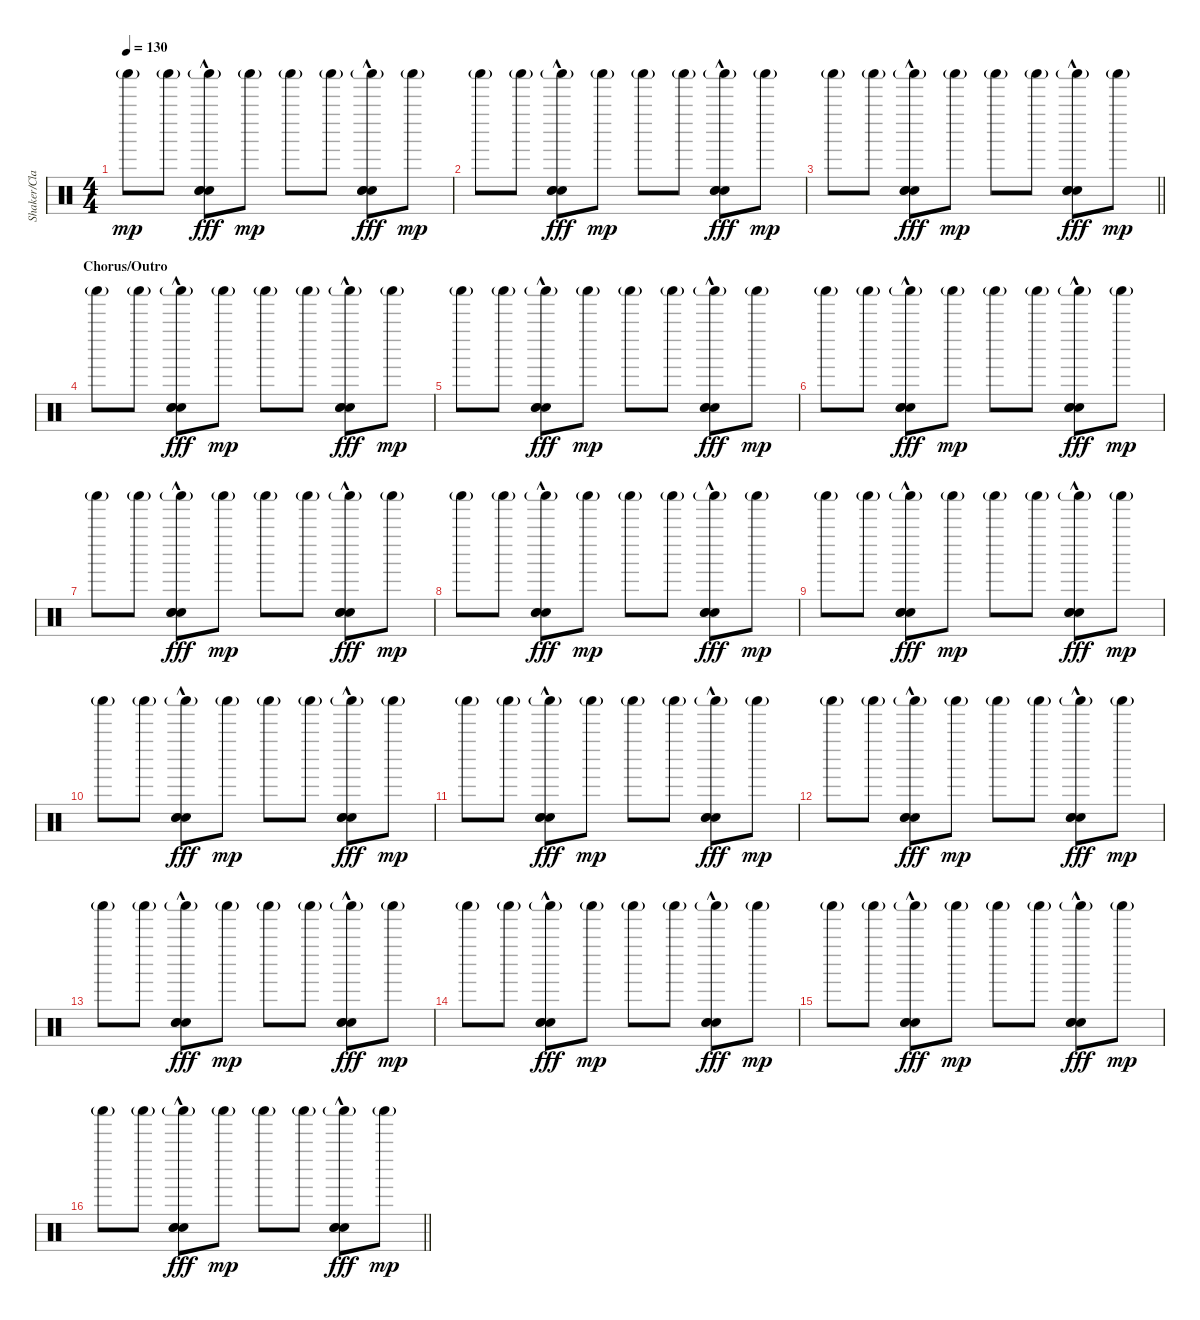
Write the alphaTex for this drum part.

\track ("Shaker/Claps" "Shaker/Cla") {instrument percussion}
\staff {score}
\articulation defaults
\ts (4 4)
\tempo 130
\clef neutral
\ks c "Shaker (hit)"{g}.8{dy mp} "Shaker (hit)"{g}.8
("Shaker (hit)"{g} "Hand Clap (hit)"{hac} "Hand Clap (hit)"{hac} "Hand Clap (hit)"{hac}).8{dy fff} "Shaker (hit)"{g}.8{dy mp} "Shaker (hit)"{g}.8 "Shaker (hit)"{g}.8 ("Shaker (hit)"{g} "Hand Clap (hit)"{hac} "Hand Clap (hit)"{hac} "Hand Clap (hit)"{hac}).8{dy fff} "Shaker (hit)"{g}.8{dy mp} |
"Shaker (hit)"{g}.8 "Shaker (hit)"{g}.8 ("Shaker (hit)"{g} "Hand Clap (hit)"{hac} "Hand Clap (hit)"{hac} "Hand Clap (hit)"{hac}).8{dy fff} "Shaker (hit)"{g}.8{dy mp} "Shaker (hit)"{g}.8 "Shaker (hit)"{g}.8 ("Shaker (hit)"{g} "Hand Clap (hit)"{hac} "Hand Clap (hit)"{hac} "Hand Clap (hit)"{hac}).8{dy fff} "Shaker (hit)"{g}.8{dy mp} |
\barLineRight lightlight "Shaker (hit)"{g}.8 "Shaker (hit)"{g}.8
("Shaker (hit)"{g} "Hand Clap (hit)"{hac} "Hand Clap (hit)"{hac} "Hand Clap (hit)"{hac}).8{dy fff} "Shaker (hit)"{g}.8{dy mp} "Shaker (hit)"{g}.8 "Shaker (hit)"{g}.8 ("Shaker (hit)"{g} "Hand Clap (hit)"{hac} "Hand Clap (hit)"{hac} "Hand Clap (hit)"{hac}).8{dy fff} "Shaker (hit)"{g}.8{dy mp} |
\section ("" "Chorus/Outro")
"Shaker (hit)"{g}.8 "Shaker (hit)"{g}.8 ("Shaker (hit)"{g} "Hand Clap (hit)"{hac} "Hand Clap (hit)"{hac} "Hand Clap (hit)"{hac}).8{dy fff} "Shaker (hit)"{g}.8{dy mp} "Shaker (hit)"{g}.8 "Shaker (hit)"{g}.8 ("Shaker (hit)"{g} "Hand Clap (hit)"{hac} "Hand Clap (hit)"{hac} "Hand Clap (hit)"{hac}).8{dy fff} "Shaker (hit)"{g}.8{dy mp} |
"Shaker (hit)"{g}.8 "Shaker (hit)"{g}.8 ("Shaker (hit)"{g} "Hand Clap (hit)"{hac} "Hand Clap (hit)"{hac} "Hand Clap (hit)"{hac}).8{dy fff} "Shaker (hit)"{g}.8{dy mp} "Shaker (hit)"{g}.8 "Shaker (hit)"{g}.8 ("Shaker (hit)"{g} "Hand Clap (hit)"{hac} "Hand Clap (hit)"{hac} "Hand Clap (hit)"{hac}).8{dy fff} "Shaker (hit)"{g}.8{dy mp} |
"Shaker (hit)"{g}.8 "Shaker (hit)"{g}.8 ("Shaker (hit)"{g} "Hand Clap (hit)"{hac} "Hand Clap (hit)"{hac} "Hand Clap (hit)"{hac}).8{dy fff} "Shaker (hit)"{g}.8{dy mp} "Shaker (hit)"{g}.8 "Shaker (hit)"{g}.8 ("Shaker (hit)"{g} "Hand Clap (hit)"{hac} "Hand Clap (hit)"{hac} "Hand Clap (hit)"{hac}).8{dy fff} "Shaker (hit)"{g}.8{dy mp} |
"Shaker (hit)"{g}.8 "Shaker (hit)"{g}.8 ("Shaker (hit)"{g} "Hand Clap (hit)"{hac} "Hand Clap (hit)"{hac} "Hand Clap (hit)"{hac}).8{dy fff} "Shaker (hit)"{g}.8{dy mp} "Shaker (hit)"{g}.8 "Shaker (hit)"{g}.8 ("Shaker (hit)"{g} "Hand Clap (hit)"{hac} "Hand Clap (hit)"{hac} "Hand Clap (hit)"{hac}).8{dy fff} "Shaker (hit)"{g}.8{dy mp} |
"Shaker (hit)"{g}.8 "Shaker (hit)"{g}.8 ("Shaker (hit)"{g} "Hand Clap (hit)"{hac} "Hand Clap (hit)"{hac} "Hand Clap (hit)"{hac}).8{dy fff} "Shaker (hit)"{g}.8{dy mp} "Shaker (hit)"{g}.8 "Shaker (hit)"{g}.8 ("Shaker (hit)"{g} "Hand Clap (hit)"{hac} "Hand Clap (hit)"{hac} "Hand Clap (hit)"{hac}).8{dy fff} "Shaker (hit)"{g}.8{dy mp} |
"Shaker (hit)"{g}.8 "Shaker (hit)"{g}.8 ("Shaker (hit)"{g} "Hand Clap (hit)"{hac} "Hand Clap (hit)"{hac} "Hand Clap (hit)"{hac}).8{dy fff} "Shaker (hit)"{g}.8{dy mp} "Shaker (hit)"{g}.8 "Shaker (hit)"{g}.8 ("Shaker (hit)"{g} "Hand Clap (hit)"{hac} "Hand Clap (hit)"{hac} "Hand Clap (hit)"{hac}).8{dy fff} "Shaker (hit)"{g}.8{dy mp} |
"Shaker (hit)"{g}.8 "Shaker (hit)"{g}.8 ("Shaker (hit)"{g} "Hand Clap (hit)"{hac} "Hand Clap (hit)"{hac} "Hand Clap (hit)"{hac}).8{dy fff} "Shaker (hit)"{g}.8{dy mp} "Shaker (hit)"{g}.8 "Shaker (hit)"{g}.8 ("Shaker (hit)"{g} "Hand Clap (hit)"{hac} "Hand Clap (hit)"{hac} "Hand Clap (hit)"{hac}).8{dy fff} "Shaker (hit)"{g}.8{dy mp} |
"Shaker (hit)"{g}.8 "Shaker (hit)"{g}.8 ("Shaker (hit)"{g} "Hand Clap (hit)"{hac} "Hand Clap (hit)"{hac} "Hand Clap (hit)"{hac}).8{dy fff} "Shaker (hit)"{g}.8{dy mp} "Shaker (hit)"{g}.8 "Shaker (hit)"{g}.8 ("Shaker (hit)"{g} "Hand Clap (hit)"{hac} "Hand Clap (hit)"{hac} "Hand Clap (hit)"{hac}).8{dy fff} "Shaker (hit)"{g}.8{dy mp} |
"Shaker (hit)"{g}.8 "Shaker (hit)"{g}.8 ("Shaker (hit)"{g} "Hand Clap (hit)"{hac} "Hand Clap (hit)"{hac} "Hand Clap (hit)"{hac}).8{dy fff} "Shaker (hit)"{g}.8{dy mp} "Shaker (hit)"{g}.8 "Shaker (hit)"{g}.8 ("Shaker (hit)"{g} "Hand Clap (hit)"{hac} "Hand Clap (hit)"{hac} "Hand Clap (hit)"{hac}).8{dy fff} "Shaker (hit)"{g}.8{dy mp} |
"Shaker (hit)"{g}.8 "Shaker (hit)"{g}.8 ("Shaker (hit)"{g} "Hand Clap (hit)"{hac} "Hand Clap (hit)"{hac} "Hand Clap (hit)"{hac}).8{dy fff} "Shaker (hit)"{g}.8{dy mp} "Shaker (hit)"{g}.8 "Shaker (hit)"{g}.8 ("Shaker (hit)"{g} "Hand Clap (hit)"{hac} "Hand Clap (hit)"{hac} "Hand Clap (hit)"{hac}).8{dy fff} "Shaker (hit)"{g}.8{dy mp} |
"Shaker (hit)"{g}.8 "Shaker (hit)"{g}.8 ("Shaker (hit)"{g} "Hand Clap (hit)"{hac} "Hand Clap (hit)"{hac} "Hand Clap (hit)"{hac}).8{dy fff} "Shaker (hit)"{g}.8{dy mp} "Shaker (hit)"{g}.8 "Shaker (hit)"{g}.8 ("Shaker (hit)"{g} "Hand Clap (hit)"{hac} "Hand Clap (hit)"{hac} "Hand Clap (hit)"{hac}).8{dy fff} "Shaker (hit)"{g}.8{dy mp} |
"Shaker (hit)"{g}.8 "Shaker (hit)"{g}.8 ("Shaker (hit)"{g} "Hand Clap (hit)"{hac} "Hand Clap (hit)"{hac} "Hand Clap (hit)"{hac}).8{dy fff} "Shaker (hit)"{g}.8{dy mp} "Shaker (hit)"{g}.8 "Shaker (hit)"{g}.8 ("Shaker (hit)"{g} "Hand Clap (hit)"{hac} "Hand Clap (hit)"{hac} "Hand Clap (hit)"{hac}).8{dy fff} "Shaker (hit)"{g}.8{dy mp} |
\barLineRight lightlight "Shaker (hit)"{g}.8 "Shaker (hit)"{g}.8
("Shaker (hit)"{g} "Hand Clap (hit)"{hac} "Hand Clap (hit)"{hac} "Hand Clap (hit)"{hac}).8{dy fff} "Shaker (hit)"{g}.8{dy mp} "Shaker (hit)"{g}.8 "Shaker (hit)"{g}.8 ("Shaker (hit)"{g} "Hand Clap (hit)"{hac} "Hand Clap (hit)"{hac} "Hand Clap (hit)"{hac}).8{dy fff} "Shaker (hit)"{g}.8{dy mp}
